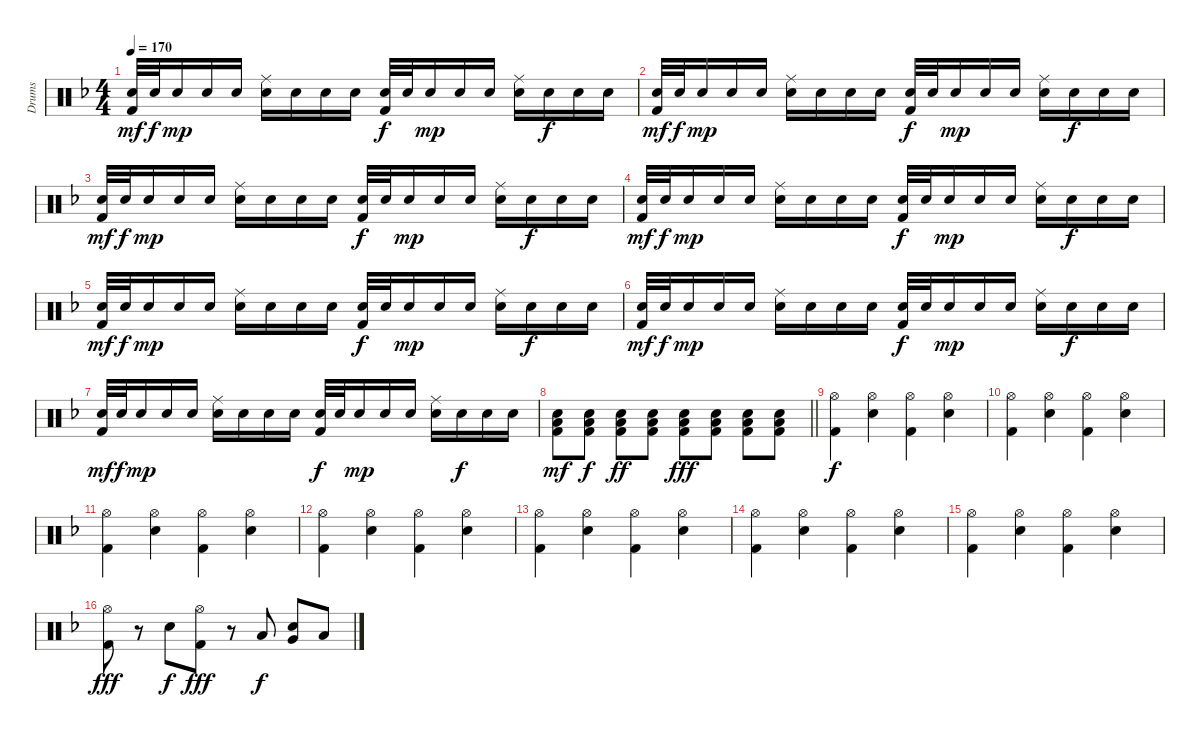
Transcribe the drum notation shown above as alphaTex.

\track ("Drums" "Drums") {instrument percussion}
\staff {score}
\articulation defaults
\ts (4 4)
\tempo 170
\clef neutral
\ks f
("Electric Snare (hit)" "Kick (hit) 2").32{dy mf} "Electric Snare (hit)".32{dy f} "Electric Snare (hit)".16{dy mp} "Electric Snare (hit)".16 "Electric Snare (hit)".16 ("Ride (middle)" "Electric Snare (hit)").16 "Electric Snare (hit)".16 "Electric Snare (hit)".16 "Electric Snare (hit)".16 ("Electric Snare (hit)" "Kick (hit) 2").32{dy f} "Electric Snare (hit)".32 "Electric Snare (hit)".16{dy mp} "Electric Snare (hit)".16 "Electric Snare (hit)".16 ("Ride (middle)" "Electric Snare (hit)").16 "Electric Snare (hit)".16{dy f} "Electric Snare (hit)".16 "Electric Snare (hit)".16 |
("Electric Snare (hit)" "Kick (hit) 2").32{dy mf} "Electric Snare (hit)".32{dy f} "Electric Snare (hit)".16{dy mp} "Electric Snare (hit)".16 "Electric Snare (hit)".16 ("Ride (middle)" "Electric Snare (hit)").16 "Electric Snare (hit)".16 "Electric Snare (hit)".16 "Electric Snare (hit)".16 ("Electric Snare (hit)" "Kick (hit) 2").32{dy f} "Electric Snare (hit)".32 "Electric Snare (hit)".16{dy mp} "Electric Snare (hit)".16 "Electric Snare (hit)".16 ("Ride (middle)" "Electric Snare (hit)").16 "Electric Snare (hit)".16{dy f} "Electric Snare (hit)".16 "Electric Snare (hit)".16 |
("Electric Snare (hit)" "Kick (hit) 2").32{dy mf} "Electric Snare (hit)".32{dy f} "Electric Snare (hit)".16{dy mp} "Electric Snare (hit)".16 "Electric Snare (hit)".16 ("Ride (middle)" "Electric Snare (hit)").16 "Electric Snare (hit)".16 "Electric Snare (hit)".16 "Electric Snare (hit)".16 ("Electric Snare (hit)" "Kick (hit) 2").32{dy f} "Electric Snare (hit)".32 "Electric Snare (hit)".16{dy mp} "Electric Snare (hit)".16 "Electric Snare (hit)".16 ("Ride (middle)" "Electric Snare (hit)").16 "Electric Snare (hit)".16{dy f} "Electric Snare (hit)".16 "Electric Snare (hit)".16 |
("Electric Snare (hit)" "Kick (hit) 2").32{dy mf} "Electric Snare (hit)".32{dy f} "Electric Snare (hit)".16{dy mp} "Electric Snare (hit)".16 "Electric Snare (hit)".16 ("Ride (middle)" "Electric Snare (hit)").16 "Electric Snare (hit)".16 "Electric Snare (hit)".16 "Electric Snare (hit)".16 ("Electric Snare (hit)" "Kick (hit) 2").32{dy f} "Electric Snare (hit)".32 "Electric Snare (hit)".16{dy mp} "Electric Snare (hit)".16 "Electric Snare (hit)".16 ("Ride (middle)" "Electric Snare (hit)").16 "Electric Snare (hit)".16{dy f} "Electric Snare (hit)".16 "Electric Snare (hit)".16 |
("Electric Snare (hit)" "Kick (hit) 2").32{dy mf} "Electric Snare (hit)".32{dy f} "Electric Snare (hit)".16{dy mp} "Electric Snare (hit)".16 "Electric Snare (hit)".16 ("Ride (middle)" "Electric Snare (hit)").16 "Electric Snare (hit)".16 "Electric Snare (hit)".16 "Electric Snare (hit)".16 ("Electric Snare (hit)" "Kick (hit) 2").32{dy f} "Electric Snare (hit)".32 "Electric Snare (hit)".16{dy mp} "Electric Snare (hit)".16 "Electric Snare (hit)".16 ("Ride (middle)" "Electric Snare (hit)").16 "Electric Snare (hit)".16{dy f} "Electric Snare (hit)".16 "Electric Snare (hit)".16 |
("Electric Snare (hit)" "Kick (hit) 2").32{dy mf} "Electric Snare (hit)".32{dy f} "Electric Snare (hit)".16{dy mp} "Electric Snare (hit)".16 "Electric Snare (hit)".16 ("Ride (middle)" "Electric Snare (hit)").16 "Electric Snare (hit)".16 "Electric Snare (hit)".16 "Electric Snare (hit)".16 ("Electric Snare (hit)" "Kick (hit) 2").32{dy f} "Electric Snare (hit)".32 "Electric Snare (hit)".16{dy mp} "Electric Snare (hit)".16 "Electric Snare (hit)".16 ("Ride (middle)" "Electric Snare (hit)").16 "Electric Snare (hit)".16{dy f} "Electric Snare (hit)".16 "Electric Snare (hit)".16 |
("Electric Snare (hit)" "Kick (hit) 2").32{dy mf} "Electric Snare (hit)".32{dy f} "Electric Snare (hit)".16{dy mp} "Electric Snare (hit)".16 "Electric Snare (hit)".16 ("Ride (middle)" "Electric Snare (hit)").16 "Electric Snare (hit)".16 "Electric Snare (hit)".16 "Electric Snare (hit)".16 ("Electric Snare (hit)" "Kick (hit) 2").32{dy f} "Electric Snare (hit)".32 "Electric Snare (hit)".16{dy mp} "Electric Snare (hit)".16 "Electric Snare (hit)".16 ("Ride (middle)" "Electric Snare (hit)").16 "Electric Snare (hit)".16{dy f} "Electric Snare (hit)".16 "Electric Snare (hit)".16 |
\barLineRight lightlight
("Low Floor Tom (hit)" "Electric Snare (hit)" "Kick (hit) 2").8{dy mf} ("Low Floor Tom (hit)" "Electric Snare (hit)" "Kick (hit) 2").8{dy f} ("Low Floor Tom (hit)" "Electric Snare (hit)" "Kick (hit) 2").8{dy ff} ("Low Floor Tom (hit)" "Electric Snare (hit)" "Kick (hit) 2").8 ("Low Floor Tom (hit)" "Electric Snare (hit)" "Kick (hit) 2").8{dy fff} ("Low Floor Tom (hit)" "Electric Snare (hit)" "Kick (hit) 2").8 ("Low Floor Tom (hit)" "Electric Snare (hit)" "Kick (hit) 2").8 ("Low Floor Tom (hit)" "Electric Snare (hit)" "Kick (hit) 2").8 |
("Hi-Hat (open)" "Kick (hit) 2").4{dy f} ("Hi-Hat (open)" "Electric Snare (hit)").4 ("Hi-Hat (open)" "Kick (hit) 2").4 ("Hi-Hat (open)" "Electric Snare (hit)").4 |
("Hi-Hat (open)" "Kick (hit) 2").4 ("Hi-Hat (open)" "Electric Snare (hit)").4 ("Hi-Hat (open)" "Kick (hit) 2").4 ("Hi-Hat (open)" "Electric Snare (hit)").4 |
("Hi-Hat (open)" "Kick (hit) 2").4 ("Hi-Hat (open)" "Electric Snare (hit)").4 ("Hi-Hat (open)" "Kick (hit) 2").4 ("Hi-Hat (open)" "Electric Snare (hit)").4 |
("Hi-Hat (open)" "Kick (hit) 2").4 ("Hi-Hat (open)" "Electric Snare (hit)").4 ("Hi-Hat (open)" "Kick (hit) 2").4 ("Hi-Hat (open)" "Electric Snare (hit)").4 |
("Hi-Hat (open)" "Kick (hit) 2").4 ("Hi-Hat (open)" "Electric Snare (hit)").4 ("Hi-Hat (open)" "Kick (hit) 2").4 ("Hi-Hat (open)" "Electric Snare (hit)").4 |
("Hi-Hat (open)" "Kick (hit) 2").4 ("Hi-Hat (open)" "Electric Snare (hit)").4 ("Hi-Hat (open)" "Kick (hit) 2").4 ("Hi-Hat (open)" "Electric Snare (hit)").4 |
("Hi-Hat (open)" "Kick (hit) 2").4 ("Hi-Hat (open)" "Electric Snare (hit)").4 ("Hi-Hat (open)" "Kick (hit) 2").4 ("Hi-Hat (open)" "Electric Snare (hit)").4 |
("Hi-Hat (open)" "Kick (hit) 2").8{dy fff} r.8 "Electric Snare (hit)".8{dy f} ("Hi-Hat (open)" "Kick (hit) 2").8{dy fff} r.8 "Low Tom (hit)".8{dy f} ("Very Low Tom (hit)" "Electric Snare (hit)").8 "Low Floor Tom (hit)".8
